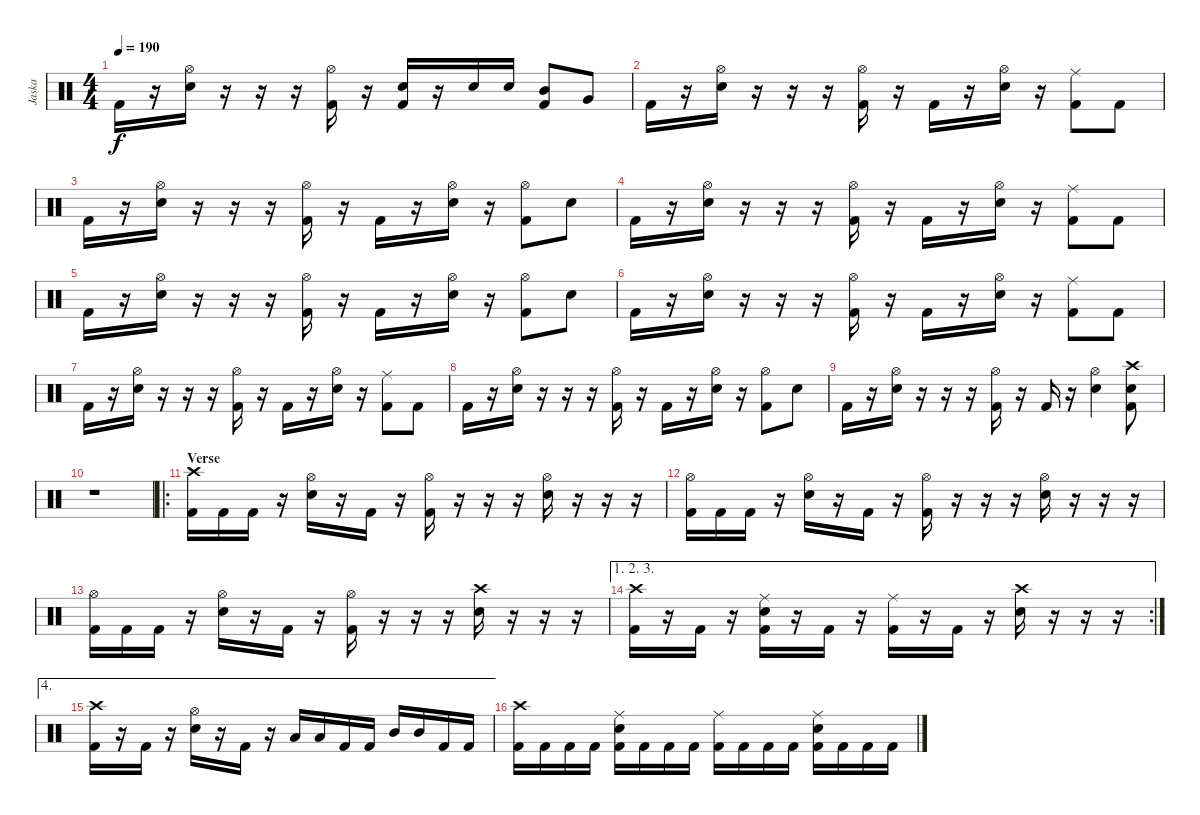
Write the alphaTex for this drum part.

\track ("Jaska" "Jaska") {instrument percussion}
\staff {score}
\articulation defaults
\ts (4 4)
\tempo 190
\clef neutral
\ks c "Kick (hit) 2".16{dy f}
r.16 ("Hi-Hat (open)" "Electric Snare (hit)").16 r.16 r.16 r.16 ("Hi-Hat (open)" "Kick (hit) 2").16 r.16 ("Electric Snare (hit)" "Kick (hit) 2").16 r.16 "Electric Snare (hit)".16 "Electric Snare (hit)".16 ("Mid Tom (hit)" "Kick (hit) 2").8 "Very Low Tom (hit)".8 |
"Kick (hit) 2".16 r.16 ("Hi-Hat (open)" "Electric Snare (hit)").16 r.16 r.16 r.16 ("Hi-Hat (open)" "Kick (hit) 2").16 r.16 "Kick (hit) 2".16 r.16 ("Hi-Hat (open)" "Electric Snare (hit)").16 r.16 ("Ride (middle)" "Kick (hit) 2").8 "Kick (hit) 2".8 |
"Kick (hit) 2".16 r.16 ("Hi-Hat (open)" "Electric Snare (hit)").16 r.16 r.16 r.16 ("Hi-Hat (open)" "Kick (hit) 2").16 r.16 "Kick (hit) 2".16 r.16 ("Hi-Hat (open)" "Electric Snare (hit)").16 r.16 ("Hi-Hat (open)" "Kick (hit) 2").8 "Electric Snare (hit)".8 |
"Kick (hit) 2".16 r.16 ("Hi-Hat (open)" "Electric Snare (hit)").16 r.16 r.16 r.16 ("Hi-Hat (open)" "Kick (hit) 2").16 r.16 "Kick (hit) 2".16 r.16 ("Hi-Hat (open)" "Electric Snare (hit)").16 r.16 ("Ride (middle)" "Kick (hit) 2").8 "Kick (hit) 2".8 |
"Kick (hit) 2".16 r.16 ("Hi-Hat (open)" "Electric Snare (hit)").16 r.16 r.16 r.16 ("Hi-Hat (open)" "Kick (hit) 2").16 r.16 "Kick (hit) 2".16 r.16 ("Hi-Hat (open)" "Electric Snare (hit)").16 r.16 ("Hi-Hat (open)" "Kick (hit) 2").8 "Electric Snare (hit)".8 |
"Kick (hit) 2".16 r.16 ("Hi-Hat (open)" "Electric Snare (hit)").16 r.16 r.16 r.16 ("Hi-Hat (open)" "Kick (hit) 2").16 r.16 "Kick (hit) 2".16 r.16 ("Hi-Hat (open)" "Electric Snare (hit)").16 r.16 ("Ride (middle)" "Kick (hit) 2").8 "Kick (hit) 2".8 |
"Kick (hit) 2".16 r.16 ("Hi-Hat (open)" "Electric Snare (hit)").16 r.16 r.16 r.16 ("Hi-Hat (open)" "Kick (hit) 2").16 r.16 "Kick (hit) 2".16 r.16 ("Hi-Hat (open)" "Electric Snare (hit)").16 r.16 ("Ride (middle)" "Kick (hit) 2").8 "Kick (hit) 2".8 |
"Kick (hit) 2".16 r.16 ("Hi-Hat (open)" "Electric Snare (hit)").16 r.16 r.16 r.16 ("Hi-Hat (open)" "Kick (hit) 2").16 r.16 "Kick (hit) 2".16 r.16 ("Hi-Hat (open)" "Electric Snare (hit)").16 r.16 ("Hi-Hat (open)" "Kick (hit) 2").8 "Electric Snare (hit)".8 |
"Kick (hit) 2".16 r.16 ("Hi-Hat (open)" "Electric Snare (hit)").16 r.16 r.16 r.16 ("Hi-Hat (open)" "Kick (hit) 2").16 r.16 "Kick (hit) 2".16 r.16 ("Hi-Hat (open)" "Electric Snare (hit)").4 ("Crash high (hit)" "Electric Snare (hit)" "Kick (hit) 2").8 |
r.1 |
\ro
\section ("" "Verse")
("Crash high (hit)" "Kick (hit) 2").16 "Kick (hit) 2".16 "Kick (hit) 2".16 r.16 ("Hi-Hat (open)" "Electric Snare (hit)").16 r.16 "Kick (hit) 2".16 r.16 ("Hi-Hat (open)" "Kick (hit) 2").16 r.16 r.16 r.16 ("Hi-Hat (open)" "Electric Snare (hit)").16 r.16 r.16 r.16 |
("Hi-Hat (open)" "Kick (hit) 2").16 "Kick (hit) 2".16 "Kick (hit) 2".16 r.16 ("Hi-Hat (open)" "Electric Snare (hit)").16 r.16 "Kick (hit) 2".16 r.16 ("Hi-Hat (open)" "Kick (hit) 2").16 r.16 r.16 r.16 ("Hi-Hat (open)" "Electric Snare (hit)").16 r.16 r.16 r.16 |
("Hi-Hat (open)" "Kick (hit) 2").16 "Kick (hit) 2".16 "Kick (hit) 2".16 r.16 ("Hi-Hat (open)" "Electric Snare (hit)").16 r.16 "Kick (hit) 2".16 r.16 ("Hi-Hat (open)" "Kick (hit) 2").16 r.16 r.16 r.16 ("Crash high (hit)" "Electric Snare (hit)").16 r.16 r.16 r.16 |
\ae (1 2 3)
\rc 2
("Crash high (hit)" "Kick (hit) 2").16 r.16 "Kick (hit) 2".16 r.16 ("Ride (middle)" "Electric Snare (hit)" "Kick (hit) 2").16 r.16 "Kick (hit) 2".16 r.16 ("Ride (middle)" "Kick (hit) 2").16 r.16 "Kick (hit) 2".16 r.16 ("Crash high (hit)" "Electric Snare (hit)").16 r.16 r.16 r.16 |
\ae 4
("Crash high (hit)" "Kick (hit) 2").16 r.16 "Kick (hit) 2".16 r.16 ("Hi-Hat (open)" "Electric Snare (hit)").16 r.16 "Kick (hit) 2".16 r.16 "Low Tom (hit)".16 "Low Tom (hit)".16 "Kick (hit) 2".16 "Kick (hit) 2".16 "Mid Tom (hit)".16 "Mid Tom (hit)".16 "Kick (hit) 2".16 "Kick (hit) 2".16 |
("Crash high (hit)" "Kick (hit) 2").16 "Kick (hit) 2".16 "Kick (hit) 2".16 "Kick (hit) 2".16 ("Ride (middle)" "Electric Snare (hit)" "Kick (hit) 2").16 "Kick (hit) 2".16 "Kick (hit) 2".16 "Kick (hit) 2".16 ("Ride (middle)" "Kick (hit) 2").16 "Kick (hit) 2".16 "Kick (hit) 2".16 "Kick (hit) 2".16 ("Ride (middle)" "Electric Snare (hit)" "Kick (hit) 2").16 "Kick (hit) 2".16 "Kick (hit) 2".16 "Kick (hit) 2".16
